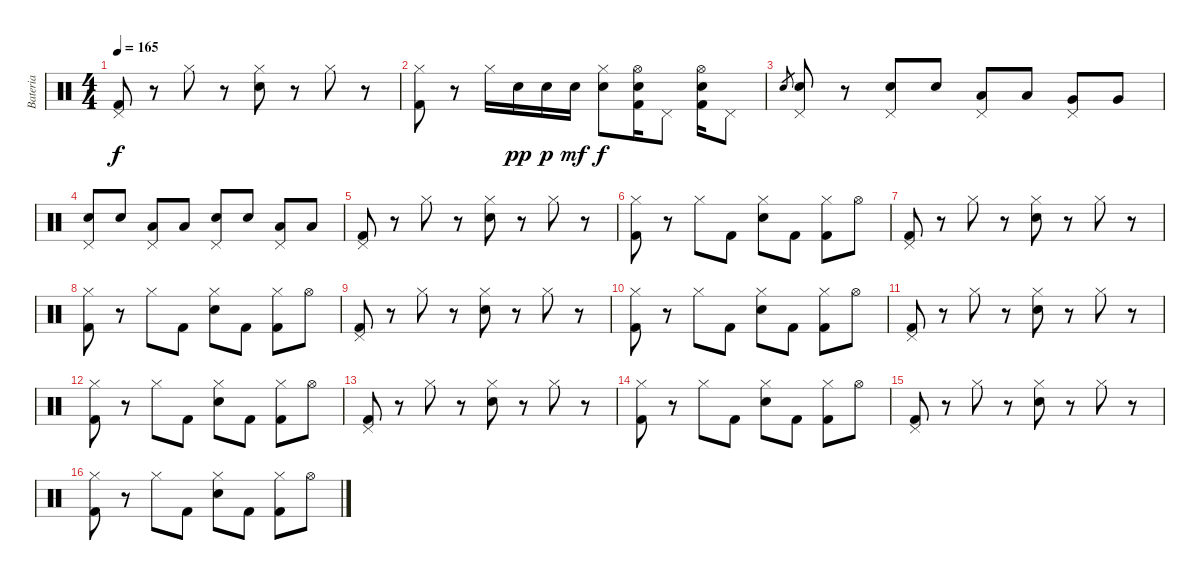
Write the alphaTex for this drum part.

\track ("Bateria" "Bateria") {instrument percussion}
\staff {score}
\articulation defaults
\ts (4 4)
\tempo 165
\clef neutral
\ks c
("Pedal Hi-Hat (hit)" "Kick (hit) 2").8{dy f} r.8 "Hi-Hat (closed)".8 r.8 ("Hi-Hat (closed)" "Snare (hit) 2").8 r.8 "Hi-Hat (closed)".8 r.8 |
("Hi-Hat (closed)" "Kick (hit) 2").8 r.8 "Hi-Hat (closed)".16 "Snare (hit) 2".16{dy pp} "Snare (hit) 2".16{dy p} "Snare (hit) 2".16{dy mf} ("Hi-Hat (closed)" "Snare (hit) 2").8{dy f} ("Hi-Hat (open)" "Snare (hit) 2" "Kick (hit) 2").16 "Pedal Hi-Hat (hit)".8 ("Hi-Hat (open)" "Snare (hit) 2" "Kick (hit) 2").16 "Pedal Hi-Hat (hit)".8 |
"Snare (hit) 2".8{gr} ("Pedal Hi-Hat (hit)" "Snare (hit) 2").8 r.8 ("Pedal Hi-Hat (hit)" "Snare (hit) 2").8 "Snare (hit) 2".8 ("Pedal Hi-Hat (hit)" "Low Tom (hit)").8 "Low Tom (hit)".8 ("Pedal Hi-Hat (hit)" "Very Low Tom (hit)").8 "Very Low Tom (hit)".8 |
("Pedal Hi-Hat (hit)" "Snare (hit) 2").8 "Snare (hit) 2".8 ("Pedal Hi-Hat (hit)" "Low Tom (hit)").8 "Low Tom (hit)".8 ("Pedal Hi-Hat (hit)" "Snare (hit) 2").8 "Snare (hit) 2".8 ("Pedal Hi-Hat (hit)" "Low Tom (hit)").8 "Low Tom (hit)".8 |
("Pedal Hi-Hat (hit)" "Kick (hit) 2").8 r.8 "Hi-Hat (closed)".8 r.8 ("Hi-Hat (closed)" "Snare (hit) 2").8 r.8 "Hi-Hat (closed)".8 r.8 |
("Hi-Hat (closed)" "Kick (hit) 2").8 r.8 "Hi-Hat (closed)".8 "Kick (hit) 2".8 ("Hi-Hat (closed)" "Snare (hit) 2").8 "Kick (hit) 2".8 ("Hi-Hat (closed)" "Kick (hit) 2").8 "Hi-Hat (open)".8 |
("Pedal Hi-Hat (hit)" "Kick (hit) 2").8 r.8 "Hi-Hat (closed)".8 r.8 ("Hi-Hat (closed)" "Snare (hit) 2").8 r.8 "Hi-Hat (closed)".8 r.8 |
("Hi-Hat (closed)" "Kick (hit) 2").8 r.8 "Hi-Hat (closed)".8 "Kick (hit) 2".8 ("Hi-Hat (closed)" "Snare (hit) 2").8 "Kick (hit) 2".8 ("Hi-Hat (closed)" "Kick (hit) 2").8 "Hi-Hat (open)".8 |
("Pedal Hi-Hat (hit)" "Kick (hit) 2").8 r.8 "Hi-Hat (closed)".8 r.8 ("Hi-Hat (closed)" "Snare (hit) 2").8 r.8 "Hi-Hat (closed)".8 r.8 |
("Hi-Hat (closed)" "Kick (hit) 2").8 r.8 "Hi-Hat (closed)".8 "Kick (hit) 2".8 ("Hi-Hat (closed)" "Snare (hit) 2").8 "Kick (hit) 2".8 ("Hi-Hat (closed)" "Kick (hit) 2").8 "Hi-Hat (open)".8 |
("Pedal Hi-Hat (hit)" "Kick (hit) 2").8 r.8 "Hi-Hat (closed)".8 r.8 ("Hi-Hat (closed)" "Snare (hit) 2").8 r.8 "Hi-Hat (closed)".8 r.8 |
("Hi-Hat (closed)" "Kick (hit) 2").8 r.8 "Hi-Hat (closed)".8 "Kick (hit) 2".8 ("Hi-Hat (closed)" "Snare (hit) 2").8 "Kick (hit) 2".8 ("Hi-Hat (closed)" "Kick (hit) 2").8 "Hi-Hat (open)".8 |
("Pedal Hi-Hat (hit)" "Kick (hit) 2").8 r.8 "Hi-Hat (closed)".8 r.8 ("Hi-Hat (closed)" "Snare (hit) 2").8 r.8 "Hi-Hat (closed)".8 r.8 |
("Hi-Hat (closed)" "Kick (hit) 2").8 r.8 "Hi-Hat (closed)".8 "Kick (hit) 2".8 ("Hi-Hat (closed)" "Snare (hit) 2").8 "Kick (hit) 2".8 ("Hi-Hat (closed)" "Kick (hit) 2").8 "Hi-Hat (open)".8 |
("Pedal Hi-Hat (hit)" "Kick (hit) 2").8 r.8 "Hi-Hat (closed)".8 r.8 ("Hi-Hat (closed)" "Snare (hit) 2").8 r.8 "Hi-Hat (closed)".8 r.8 |
("Hi-Hat (closed)" "Kick (hit) 2").8 r.8 "Hi-Hat (closed)".8 "Kick (hit) 2".8 ("Hi-Hat (closed)" "Snare (hit) 2").8 "Kick (hit) 2".8 ("Hi-Hat (closed)" "Kick (hit) 2").8 "Hi-Hat (open)".8
